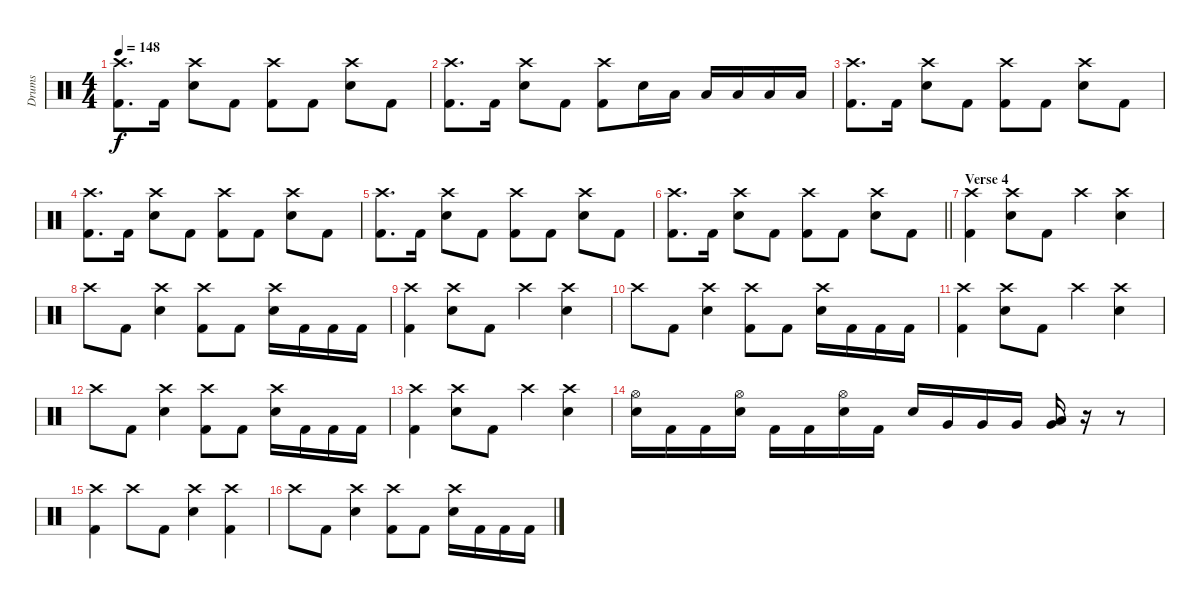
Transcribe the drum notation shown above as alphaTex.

\track ("Drums" "Drums") {instrument percussion}
\staff {score}
\articulation defaults
\ts (4 4)
\tempo 148
\clef neutral
\ks c
("Crash high (hit)" "Kick (hit) 2").8{d dy f} "Kick (hit) 2".16 ("Crash high (hit)" "Snare (hit) 2").8 "Kick (hit) 2".8 ("Crash high (hit)" "Kick (hit) 2").8 "Kick (hit) 2".8 ("Crash high (hit)" "Snare (hit) 2").8 "Kick (hit) 2".8 |
("Crash high (hit)" "Kick (hit) 2").8{d} "Kick (hit) 2".16 ("Crash high (hit)" "Snare (hit) 2").8 "Kick (hit) 2".8 ("Crash high (hit)" "Kick (hit) 2").8 "Snare (hit) 2".16 "Low Floor Tom (hit)".16 "Low Floor Tom (hit)".16 "Low Floor Tom (hit)".16 "Low Floor Tom (hit)".16 "Low Floor Tom (hit)".16 |
("Crash high (hit)" "Kick (hit) 2").8{d} "Kick (hit) 2".16 ("Crash high (hit)" "Snare (hit) 2").8 "Kick (hit) 2".8 ("Crash high (hit)" "Kick (hit) 2").8 "Kick (hit) 2".8 ("Crash high (hit)" "Snare (hit) 2").8 "Kick (hit) 2".8 |
("Crash high (hit)" "Kick (hit) 2").8{d} "Kick (hit) 2".16 ("Crash high (hit)" "Snare (hit) 2").8 "Kick (hit) 2".8 ("Crash high (hit)" "Kick (hit) 2").8 "Kick (hit) 2".8 ("Crash high (hit)" "Snare (hit) 2").8 "Kick (hit) 2".8 |
("Crash high (hit)" "Kick (hit) 2").8{d} "Kick (hit) 2".16 ("Crash high (hit)" "Snare (hit) 2").8 "Kick (hit) 2".8 ("Crash high (hit)" "Kick (hit) 2").8 "Kick (hit) 2".8 ("Crash high (hit)" "Snare (hit) 2").8 "Kick (hit) 2".8 |
\barLineRight lightlight
("Crash high (hit)" "Kick (hit) 2").8{d} "Kick (hit) 2".16 ("Crash high (hit)" "Snare (hit) 2").8 "Kick (hit) 2".8 ("Crash high (hit)" "Kick (hit) 2").8 "Kick (hit) 2".8 ("Crash high (hit)" "Snare (hit) 2").8 "Kick (hit) 2".8 |
\section ("" "Verse 4")
("Crash high (hit)" "Kick (hit) 2").4 ("Crash high (hit)" "Snare (hit) 2").8 "Kick (hit) 2".8 "Crash high (hit)".4 ("Crash high (hit)" "Snare (hit) 2").4 |
"Crash high (hit)".8 "Kick (hit) 2".8 ("Crash high (hit)" "Snare (hit) 2").4 ("Crash high (hit)" "Kick (hit) 2").8 "Kick (hit) 2".8 ("Crash high (hit)" "Snare (hit) 2").16 "Kick (hit) 2".16 "Kick (hit) 2".16 "Kick (hit) 2".16 |
("Crash high (hit)" "Kick (hit) 2").4 ("Crash high (hit)" "Snare (hit) 2").8 "Kick (hit) 2".8 "Crash high (hit)".4 ("Crash high (hit)" "Snare (hit) 2").4 |
"Crash high (hit)".8 "Kick (hit) 2".8 ("Crash high (hit)" "Snare (hit) 2").4 ("Crash high (hit)" "Kick (hit) 2").8 "Kick (hit) 2".8 ("Crash high (hit)" "Snare (hit) 2").16 "Kick (hit) 2".16 "Kick (hit) 2".16 "Kick (hit) 2".16 |
("Crash high (hit)" "Kick (hit) 2").4 ("Crash high (hit)" "Snare (hit) 2").8 "Kick (hit) 2".8 "Crash high (hit)".4 ("Crash high (hit)" "Snare (hit) 2").4 |
"Crash high (hit)".8 "Kick (hit) 2".8 ("Crash high (hit)" "Snare (hit) 2").4 ("Crash high (hit)" "Kick (hit) 2").8 "Kick (hit) 2".8 ("Crash high (hit)" "Snare (hit) 2").16 "Kick (hit) 2".16 "Kick (hit) 2".16 "Kick (hit) 2".16 |
("Crash high (hit)" "Kick (hit) 2").4 ("Crash high (hit)" "Snare (hit) 2").8 "Kick (hit) 2".8 "Crash high (hit)".4 ("Crash high (hit)" "Snare (hit) 2").4 |
("Hi-Hat (open)" "Snare (hit) 2").16 "Kick (hit) 2".16 "Kick (hit) 2".16 ("Hi-Hat (open)" "Snare (hit) 2").16 "Kick (hit) 2".16 "Kick (hit) 2".16 ("Hi-Hat (open)" "Snare (hit) 2").16 "Kick (hit) 2".16 "Snare (hit) 2".16 "Very Low Tom (hit)".16 "Very Low Tom (hit)".16 "Very Low Tom (hit)".16 ("Low Floor Tom (hit)" "Very Low Tom (hit)").16 r.16 r.8 |
("Crash high (hit)" "Kick (hit) 2").4 "Crash high (hit)".8 "Kick (hit) 2".8 ("Crash high (hit)" "Snare (hit) 2").4 ("Crash high (hit)" "Kick (hit) 2").4 |
"Crash high (hit)".8 "Kick (hit) 2".8 ("Crash high (hit)" "Snare (hit) 2").4 ("Crash high (hit)" "Kick (hit) 2").8 "Kick (hit) 2".8 ("Crash high (hit)" "Snare (hit) 2").16 "Kick (hit) 2".16 "Kick (hit) 2".16 "Kick (hit) 2".16
